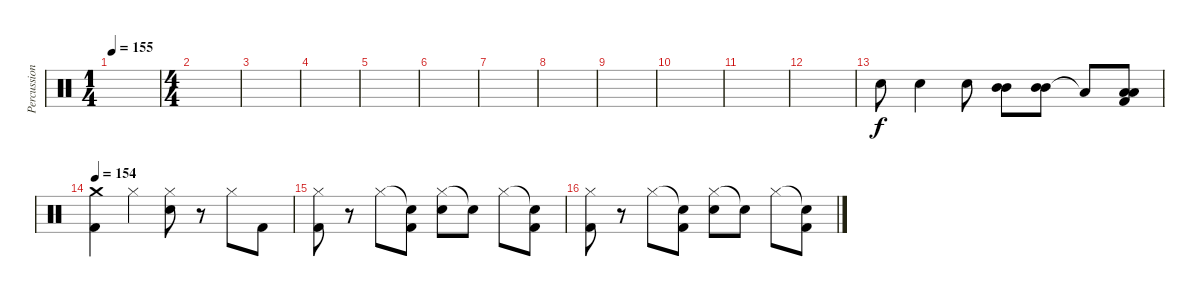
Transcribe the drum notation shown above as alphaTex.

\track ("Percussion" "Percussion") {instrument percussion}
\staff {score}
\articulation defaults
\ts (1 4)
\tempo 155
\clef neutral
\ks c
|
\ts (4 4)
|
|
|
|
|
|
|
|
|
|
|
"Snare (hit) 2".8 "Snare (hit) 2".4 "Snare (hit) 2".8 ("Mid Tom (hit)" "Mid Tom (hit)").8 ("Mid Tom (hit)" "Mid Tom (hit)").8 "Low Floor Tom (hit)"{t}.8 ("Low Tom (hit)" "Low Tom (hit)" "Kick (hit) 2").8 |
\tempo 154
("Crash medium (hit)" "Kick (hit) 2").4 "Hi-Hat (closed)".4 ("Hi-Hat (closed)" "Snare (hit) 2").8 r.8 "Hi-Hat (closed)".8 "Kick (hit) 2".8 |
("Hi-Hat (closed)" "Kick (hit) 2").8 r.8 "Hi-Hat (closed)".8 ("Snare (hit)"{t} "Kick (hit) 2").8 ("Hi-Hat (closed)" "Snare (hit) 2").8 "Snare (hit)"{t}.8 "Hi-Hat (closed)".8 ("Snare (hit)"{t} "Kick (hit) 2").8 |
("Hi-Hat (closed)" "Kick (hit) 2").8 r.8 "Hi-Hat (closed)".8 ("Snare (hit)"{t} "Kick (hit) 2").8 ("Hi-Hat (closed)" "Snare (hit) 2").8 "Snare (hit)"{t}.8 "Hi-Hat (closed)".8 ("Snare (hit)"{t} "Kick (hit) 2").8
